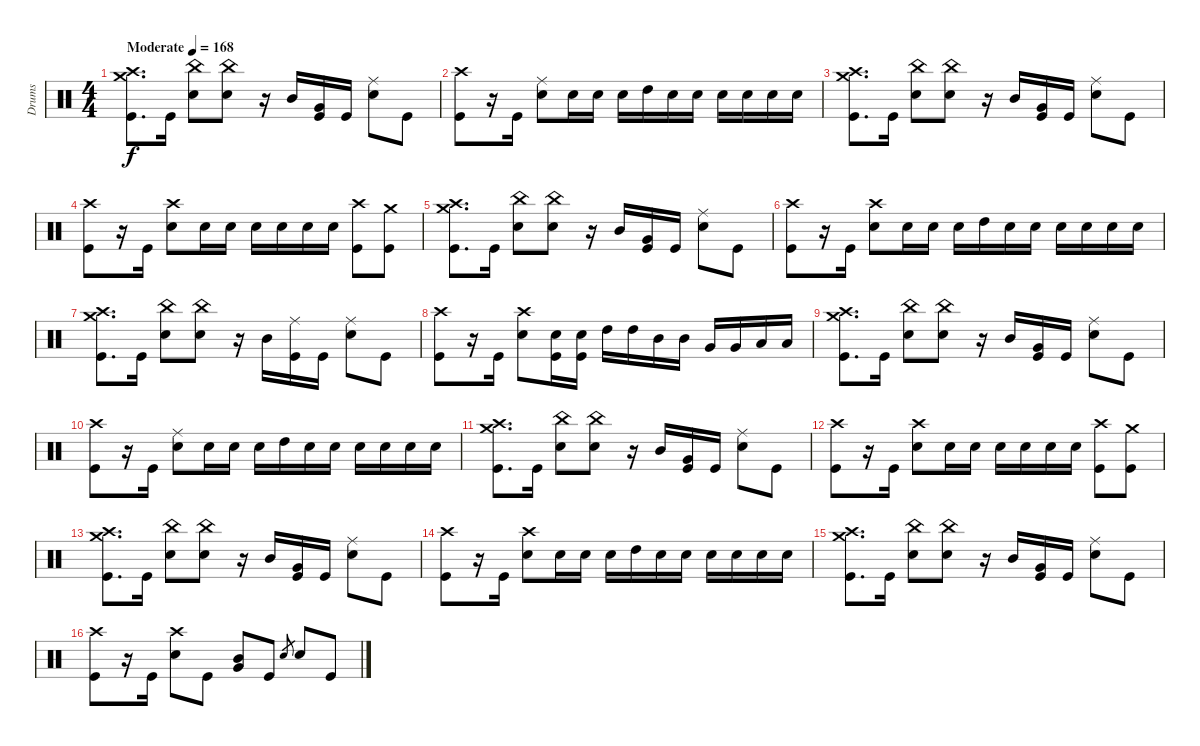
\track ("Drums" "Drums") {instrument percussion}
\staff {score}
\articulation defaults
\ts (4 4)
\tempo (168 "Moderate")
\clef neutral
\ks c
("Crash high (hit)" "Crash medium (hit)" "Kick (hit)").8{d dy f} "Kick (hit)".16 ("China (hit)" "Snare (hit) 2").8 ("China (hit)" "Snare (hit) 2").8 r.16 "Mid Tom (hit)".16 ("Very Low Tom (hit)" "Kick (hit)").16 "Kick (hit)".16 ("Ride (middle)" "Snare (hit) 2").8 "Kick (hit)".8 |
("Crash high (hit)" "Kick (hit)").8 r.16 "Kick (hit)".16 ("Ride (middle)" "Snare (hit) 2").8 "Snare (hit) 2".16 "Snare (hit) 2".16 "Snare (hit) 2".16 "High Tom (hit)".16 "Snare (hit) 2".16 "Snare (hit) 2".16 "Snare (hit) 2".16 "Snare (hit) 2".16 "Snare (hit) 2".16 "Snare (hit) 2".16 |
("Crash high (hit)" "Crash medium (hit)" "Kick (hit)").8{d} "Kick (hit)".16 ("China (hit)" "Snare (hit) 2").8 ("China (hit)" "Snare (hit) 2").8 r.16 "Mid Tom (hit)".16 ("Very Low Tom (hit)" "Kick (hit)").16 "Kick (hit)".16 ("Ride (middle)" "Snare (hit) 2").8 "Kick (hit)".8 |
("Crash high (hit)" "Kick (hit)").8 r.16 "Kick (hit)".16 ("Crash high (hit)" "Snare (hit) 2").8 "Snare (hit) 2".16 "Snare (hit) 2".16 "Snare (hit) 2".16 "Snare (hit) 2".16 "Snare (hit) 2".16 "Snare (hit) 2".16 ("Kick (hit)" "Crash high (hit)").8 ("Crash medium (hit)" "Kick (hit)").8 |
("Crash high (hit)" "Crash medium (hit)" "Kick (hit)").8{d} "Kick (hit)".16 ("China (hit)" "Snare (hit) 2").8 ("China (hit)" "Snare (hit) 2").8 r.16 "Mid Tom (hit)".16 ("Very Low Tom (hit)" "Kick (hit)").16 "Kick (hit)".16 ("Ride (middle)" "Snare (hit) 2").8 "Kick (hit)".8 |
("Crash high (hit)" "Kick (hit)").8 r.16 "Kick (hit)".16 ("Crash high (hit)" "Snare (hit) 2").8 "Snare (hit) 2".16 "Snare (hit) 2".16 "Snare (hit) 2".16 "High Tom (hit)".16 "Snare (hit) 2".16 "Snare (hit) 2".16 "Snare (hit) 2".16 "Snare (hit) 2".16 "Snare (hit) 2".16 "Snare (hit) 2".16 |
("Crash high (hit)" "Crash medium (hit)" "Kick (hit)").8{d} "Kick (hit)".16 ("China (hit)" "Snare (hit) 2").8 ("China (hit)" "Snare (hit) 2").8 r.16 "Mid Tom (hit)".16 ("Ride (middle)" "Kick (hit)").16 "Kick (hit)".16 ("Ride (middle)" "Snare (hit) 2").8 "Kick (hit)".8 |
("Crash high (hit)" "Kick (hit)").8 r.16 "Kick (hit)".16 ("Crash high (hit)" "Snare (hit) 2").8 ("Snare (hit) 2" "Kick (hit)").16 ("Snare (hit) 2" "Kick (hit)").16 "High Tom (hit)".16 "High Tom (hit)".16 "Mid Tom (hit)".16 "Mid Tom (hit)".16 "Very Low Tom (hit)".16 "Very Low Tom (hit)".16 "Low Floor Tom (hit)".16 "Low Floor Tom (hit)".16 |
("Crash high (hit)" "Crash medium (hit)" "Kick (hit)").8{d} "Kick (hit)".16 ("China (hit)" "Snare (hit) 2").8 ("China (hit)" "Snare (hit) 2").8 r.16 "Mid Tom (hit)".16 ("Very Low Tom (hit)" "Kick (hit)").16 "Kick (hit)".16 ("Ride (middle)" "Snare (hit) 2").8 "Kick (hit)".8 |
("Crash high (hit)" "Kick (hit)").8 r.16 "Kick (hit)".16 ("Ride (middle)" "Snare (hit) 2").8 "Snare (hit) 2".16 "Snare (hit) 2".16 "Snare (hit) 2".16 "High Tom (hit)".16 "Snare (hit) 2".16 "Snare (hit) 2".16 "Snare (hit) 2".16 "Snare (hit) 2".16 "Snare (hit) 2".16 "Snare (hit) 2".16 |
("Crash high (hit)" "Crash medium (hit)" "Kick (hit)").8{d} "Kick (hit)".16 ("China (hit)" "Snare (hit) 2").8 ("China (hit)" "Snare (hit) 2").8 r.16 "Mid Tom (hit)".16 ("Very Low Tom (hit)" "Kick (hit)").16 "Kick (hit)".16 ("Ride (middle)" "Snare (hit) 2").8 "Kick (hit)".8 |
("Crash high (hit)" "Kick (hit)").8 r.16 "Kick (hit)".16 ("Crash high (hit)" "Snare (hit) 2").8 "Snare (hit) 2".16 "Snare (hit) 2".16 "Snare (hit) 2".16 "Snare (hit) 2".16 "Snare (hit) 2".16 "Snare (hit) 2".16 ("Kick (hit)" "Crash high (hit)").8 ("Crash medium (hit)" "Kick (hit)").8 |
("Crash high (hit)" "Crash medium (hit)" "Kick (hit)").8{d} "Kick (hit)".16 ("China (hit)" "Snare (hit) 2").8 ("China (hit)" "Snare (hit) 2").8 r.16 "Mid Tom (hit)".16 ("Very Low Tom (hit)" "Kick (hit)").16 "Kick (hit)".16 ("Ride (middle)" "Snare (hit) 2").8 "Kick (hit)".8 |
("Crash high (hit)" "Kick (hit)").8 r.16 "Kick (hit)".16 ("Crash high (hit)" "Snare (hit) 2").8 "Snare (hit) 2".16 "Snare (hit) 2".16 "Snare (hit) 2".16 "High Tom (hit)".16 "Snare (hit) 2".16 "Snare (hit) 2".16 "Snare (hit) 2".16 "Snare (hit) 2".16 "Snare (hit) 2".16 "Snare (hit) 2".16 |
("Crash high (hit)" "Crash medium (hit)" "Kick (hit)").8{d} "Kick (hit)".16 ("China (hit)" "Snare (hit) 2").8 ("China (hit)" "Snare (hit) 2").8 r.16 "Mid Tom (hit)".16 ("Very Low Tom (hit)" "Kick (hit)").16 "Kick (hit)".16 ("Ride (middle)" "Snare (hit) 2").8 "Kick (hit)".8 |
("Crash high (hit)" "Kick (hit)").8 r.16 "Kick (hit)".16 ("Crash high (hit)" "Snare (hit) 2").8 "Kick (hit)".8 ("Mid Tom (hit)" "Very Low Tom (hit)").8 "Kick (hit)".8 "Snare (hit) 2".8{gr} "Snare (hit) 2".8 "Kick (hit)".8
